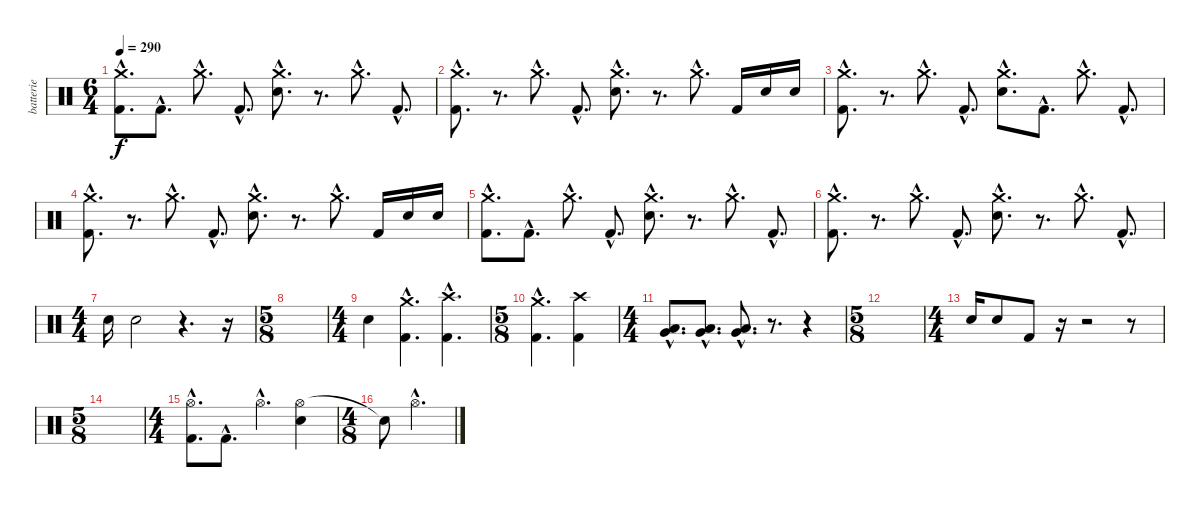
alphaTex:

\track ("batterie" "batterie") {instrument percussion}
\staff {score}
\articulation defaults
\ts (6 4)
\tempo 290
\clef neutral
\ks c
("Crash medium (hit)"{hac} "Kick (hit) 2"{hac}).8{d dy f} "Kick (hit) 2"{hac}.8{d} "Crash medium (hit)"{hac}.8{d} "Kick (hit) 2"{hac}.8{d} ("Crash medium (hit)"{hac} "Electric Snare (hit)"{hac}).8{d} r.8{d} "Crash medium (hit)"{hac}.8{d} "Kick (hit) 2"{hac}.8{d} |
("Crash medium (hit)"{hac} "Kick (hit) 2"{hac}).8{d} r.8{d} "Crash medium (hit)"{hac}.8{d} "Kick (hit) 2"{hac}.8{d} ("Crash medium (hit)"{hac} "Electric Snare (hit)"{hac}).8{d} r.8{d} "Crash medium (hit)"{hac}.8{d} "Kick (hit) 2".16 "Electric Snare (hit)".16 "Electric Snare (hit)".16 |
("Crash medium (hit)"{hac} "Kick (hit) 2"{hac}).8{d} r.8{d} "Crash medium (hit)"{hac}.8{d} "Kick (hit) 2"{hac}.8{d} ("Crash medium (hit)"{hac} "Electric Snare (hit)"{hac}).8{d} "Kick (hit) 2"{hac}.8{d} "Crash medium (hit)"{hac}.8{d} "Kick (hit) 2"{hac}.8{d} |
("Crash medium (hit)"{hac} "Kick (hit) 2"{hac}).8{d} r.8{d} "Crash medium (hit)"{hac}.8{d} "Kick (hit) 2"{hac}.8{d} ("Crash medium (hit)"{hac} "Electric Snare (hit)"{hac}).8{d} r.8{d} "Crash medium (hit)"{hac}.8{d} "Kick (hit) 2".16 "Electric Snare (hit)".16 "Electric Snare (hit)".16 |
("Crash medium (hit)"{hac} "Kick (hit) 2"{hac}).8{d} "Kick (hit) 2"{hac}.8{d} "Crash medium (hit)"{hac}.8{d} "Kick (hit) 2"{hac}.8{d} ("Crash medium (hit)"{hac} "Electric Snare (hit)"{hac}).8{d} r.8{d} "Crash medium (hit)"{hac}.8{d} "Kick (hit) 2"{hac}.8{d} |
("Crash medium (hit)"{hac} "Kick (hit) 2"{hac}).8{d} r.8{d} "Crash medium (hit)"{hac}.8{d} "Kick (hit) 2"{hac}.8{d} ("Crash medium (hit)"{hac} "Electric Snare (hit)"{hac}).8{d} r.8{d} "Crash medium (hit)"{hac}.8{d} "Kick (hit) 2"{hac}.8{d} |
\ts (4 4)
"Electric Snare (hit)".16 "Electric Snare (hit)".2 r.4{d} r.16 |
\ts (5 8)
|
\ts (4 4)
"Electric Snare (hit)".4 ("Crash medium (hit)"{hac} "Kick (hit) 2"{hac}).4{d} ("Crash high (hit)"{hac} "Kick (hit) 2"{hac}).4{d} |
\ts (5 8)
("Crash medium (hit)"{hac} "Kick (hit) 2"{hac}).4{d} ("Crash high (hit)" "Kick (hit) 2").4 |
\ts (4 4)
("Low Tom (hit)"{hac} "Very Low Tom (hit)"{hac}).8{d} ("Low Tom (hit)"{hac} "Very Low Tom (hit)"{hac}).8{d} ("Low Tom (hit)"{hac} "Very Low Tom (hit)"{hac}).8{d} r.8{d} r.4 |
\ts (5 8)
|
\ts (4 4)
"Electric Snare (hit)".16 "Electric Snare (hit)".8 "Kick (hit) 2".8 r.16 r.2 r.8 |
\ts (5 8)
|
\ts (4 4)
("Hi-Hat (open)"{hac} "Kick (hit) 2"{hac}).8{d} "Kick (hit) 2"{hac}.8{d} "Hi-Hat (open)"{hac}.4{d} ("Hi-Hat (open)" "Electric Snare (hit)").4 |
\ts (4 8)
"Snare (hit)"{t}.8 "Hi-Hat (open)"{hac}.4{d}
